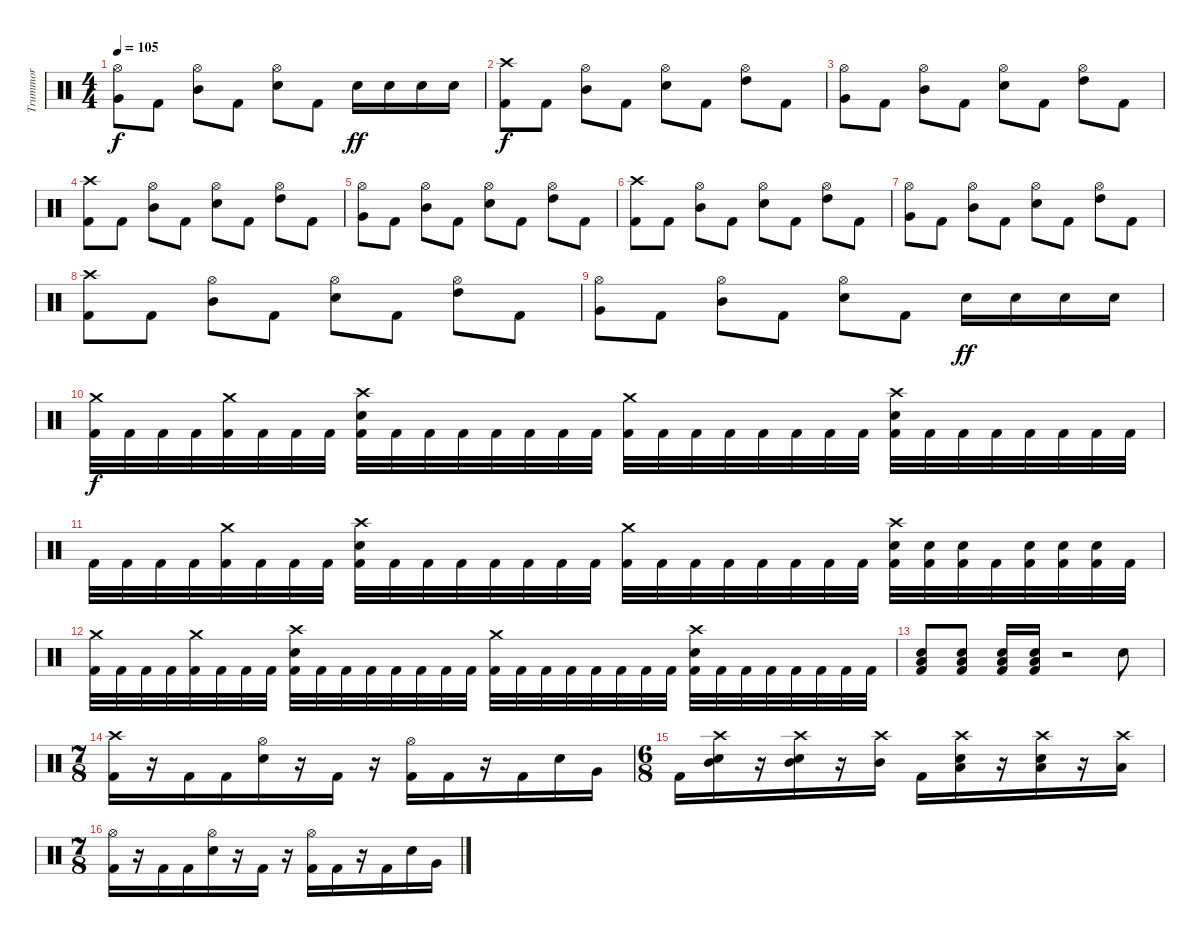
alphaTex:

\track ("Trummor" "Trummor") {instrument percussion}
\staff {score}
\articulation defaults
\ts (4 4)
\tempo 105
\clef neutral
\ks c
("Hi-Hat (open)" "Very Low Tom (hit)").8{dy f} "Kick (hit) 2".8 ("Hi-Hat (open)" "Mid Tom (hit)").8 "Kick (hit) 2".8 ("Hi-Hat (open)" "Snare (hit) 2").8 "Kick (hit) 2".8 "Snare (hit) 2".16{dy ff} "Snare (hit) 2".16 "Snare (hit) 2".16 "Snare (hit) 2".16 |
("Crash high (hit)" "Kick (hit) 2").8{dy f} "Kick (hit) 2".8 ("Hi-Hat (open)" "Mid Tom (hit)").8 "Kick (hit) 2".8 ("Hi-Hat (open)" "Snare (hit) 2").8 "Kick (hit) 2".8 ("Hi-Hat (open)" "High Tom (hit)").8 "Kick (hit) 2".8 |
("Hi-Hat (open)" "Very Low Tom (hit)").8 "Kick (hit) 2".8 ("Hi-Hat (open)" "Mid Tom (hit)").8 "Kick (hit) 2".8 ("Hi-Hat (open)" "Snare (hit) 2").8 "Kick (hit) 2".8 ("Hi-Hat (open)" "High Tom (hit)").8 "Kick (hit) 2".8 |
("Crash high (hit)" "Kick (hit) 2").8 "Kick (hit) 2".8 ("Hi-Hat (open)" "Mid Tom (hit)").8 "Kick (hit) 2".8 ("Hi-Hat (open)" "Snare (hit) 2").8 "Kick (hit) 2".8 ("Hi-Hat (open)" "High Tom (hit)").8 "Kick (hit) 2".8 |
("Hi-Hat (open)" "Very Low Tom (hit)").8 "Kick (hit) 2".8 ("Hi-Hat (open)" "Mid Tom (hit)").8 "Kick (hit) 2".8 ("Hi-Hat (open)" "Snare (hit) 2").8 "Kick (hit) 2".8 ("Hi-Hat (open)" "High Tom (hit)").8 "Kick (hit) 2".8 |
("Crash high (hit)" "Kick (hit) 2").8 "Kick (hit) 2".8 ("Hi-Hat (open)" "Mid Tom (hit)").8 "Kick (hit) 2".8 ("Hi-Hat (open)" "Snare (hit) 2").8 "Kick (hit) 2".8 ("Hi-Hat (open)" "High Tom (hit)").8 "Kick (hit) 2".8 |
("Hi-Hat (open)" "Very Low Tom (hit)").8 "Kick (hit) 2".8 ("Hi-Hat (open)" "Mid Tom (hit)").8 "Kick (hit) 2".8 ("Hi-Hat (open)" "Snare (hit) 2").8 "Kick (hit) 2".8 ("Hi-Hat (open)" "High Tom (hit)").8 "Kick (hit) 2".8 |
("Crash high (hit)" "Kick (hit) 2").8 "Kick (hit) 2".8 ("Hi-Hat (open)" "Mid Tom (hit)").8 "Kick (hit) 2".8 ("Hi-Hat (open)" "Snare (hit) 2").8 "Kick (hit) 2".8 ("Hi-Hat (open)" "High Tom (hit)").8 "Kick (hit) 2".8 |
("Hi-Hat (open)" "Very Low Tom (hit)").8 "Kick (hit) 2".8 ("Hi-Hat (open)" "Mid Tom (hit)").8 "Kick (hit) 2".8 ("Hi-Hat (open)" "Snare (hit) 2").8 "Kick (hit) 2".8 "Snare (hit) 2".16{dy ff} "Snare (hit) 2".16 "Snare (hit) 2".16 "Snare (hit) 2".16 |
("Crash medium (hit)" "Kick (hit) 2").32{dy f} "Kick (hit) 2".32 "Kick (hit) 2".32 "Kick (hit) 2".32 ("Crash medium (hit)" "Kick (hit) 2").32 "Kick (hit) 2".32 "Kick (hit) 2".32 "Kick (hit) 2".32 ("Crash high (hit)" "Snare (hit) 2" "Kick (hit) 2").32 "Kick (hit) 2".32 "Kick (hit) 2".32 "Kick (hit) 2".32 "Kick (hit) 2".32 "Kick (hit) 2".32 "Kick (hit) 2".32 "Kick (hit) 2".32 ("Crash medium (hit)" "Kick (hit) 2").32 "Kick (hit) 2".32 "Kick (hit) 2".32 "Kick (hit) 2".32 "Kick (hit) 2".32 "Kick (hit) 2".32 "Kick (hit) 2".32 "Kick (hit) 2".32 ("Crash high (hit)" "Snare (hit) 2" "Kick (hit) 2").32 "Kick (hit) 2".32 "Kick (hit) 2".32 "Kick (hit) 2".32 "Kick (hit) 2".32 "Kick (hit) 2".32 "Kick (hit) 2".32 "Kick (hit) 2".32 |
"Kick (hit) 2".32 "Kick (hit) 2".32 "Kick (hit) 2".32 "Kick (hit) 2".32 ("Crash medium (hit)" "Kick (hit) 2").32 "Kick (hit) 2".32 "Kick (hit) 2".32 "Kick (hit) 2".32 ("Crash high (hit)" "Snare (hit) 2" "Kick (hit) 2").32 "Kick (hit) 2".32 "Kick (hit) 2".32 "Kick (hit) 2".32 "Kick (hit) 2".32 "Kick (hit) 2".32 "Kick (hit) 2".32 "Kick (hit) 2".32 ("Crash medium (hit)" "Kick (hit) 2").32 "Kick (hit) 2".32 "Kick (hit) 2".32 "Kick (hit) 2".32 "Kick (hit) 2".32 "Kick (hit) 2".32 "Kick (hit) 2".32 "Kick (hit) 2".32 ("Crash high (hit)" "Snare (hit) 2" "Kick (hit) 2").32 ("Snare (hit) 2" "Kick (hit) 2").32 ("Snare (hit) 2" "Kick (hit) 2").32 "Kick (hit) 2".32 ("Snare (hit) 2" "Kick (hit) 2").32 ("Snare (hit) 2" "Kick (hit) 2").32 ("Snare (hit) 2" "Kick (hit) 2").32 "Kick (hit) 2".32 |
("Crash medium (hit)" "Kick (hit) 2").32 "Kick (hit) 2".32 "Kick (hit) 2".32 "Kick (hit) 2".32 ("Crash medium (hit)" "Kick (hit) 2").32 "Kick (hit) 2".32 "Kick (hit) 2".32 "Kick (hit) 2".32 ("Crash high (hit)" "Snare (hit) 2" "Kick (hit) 2").32 "Kick (hit) 2".32 "Kick (hit) 2".32 "Kick (hit) 2".32 "Kick (hit) 2".32 "Kick (hit) 2".32 "Kick (hit) 2".32 "Kick (hit) 2".32 ("Crash medium (hit)" "Kick (hit) 2").32 "Kick (hit) 2".32 "Kick (hit) 2".32 "Kick (hit) 2".32 "Kick (hit) 2".32 "Kick (hit) 2".32 "Kick (hit) 2".32 "Kick (hit) 2".32 ("Crash high (hit)" "Snare (hit) 2" "Kick (hit) 2").32 "Kick (hit) 2".32 "Kick (hit) 2".32 "Kick (hit) 2".32 "Kick (hit) 2".32 "Kick (hit) 2".32 "Kick (hit) 2".32 "Kick (hit) 2".32 |
("Snare (hit) 2" "Low Floor Tom (hit)" "Kick (hit) 2").8 ("Snare (hit) 2" "Low Floor Tom (hit)" "Kick (hit) 2").8 ("Snare (hit) 2" "Low Floor Tom (hit)" "Kick (hit) 2").16 ("Snare (hit) 2" "Low Floor Tom (hit)" "Kick (hit) 2").16 r.2 "Snare (hit) 2".8 |
\ts (7 8)
("Crash high (hit)" "Kick (hit) 2").16 r.16 "Kick (hit) 2".16 "Kick (hit) 2".16 ("Hi-Hat (open)" "Snare (hit) 2").16 r.16 "Kick (hit) 2".16 r.16 ("Hi-Hat (open)" "Kick (hit) 2").16 "Kick (hit) 2".16 r.16 "Kick (hit) 2".16 "Snare (hit) 2".16 "Very Low Tom (hit)".16 |
\ts (6 8)
"Kick (hit) 2".16 ("Crash high (hit)" "Mid Tom (hit)" "Snare (hit) 2").16 r.16 ("Crash high (hit)" "Mid Tom (hit)" "Snare (hit) 2").16 r.16 ("Crash high (hit)" "Mid Tom (hit)").16 "Kick (hit) 2".16 ("Crash high (hit)" "Low Tom (hit)" "Snare (hit) 2").16 r.16 ("Crash high (hit)" "Low Tom (hit)" "Snare (hit) 2").16 r.16 ("Crash high (hit)" "Low Tom (hit)").16 |
\ts (7 8)
("Hi-Hat (open)" "Kick (hit) 2").16 r.16 "Kick (hit) 2".16 "Kick (hit) 2".16 ("Hi-Hat (open)" "Snare (hit) 2").16 r.16 "Kick (hit) 2".16 r.16 ("Hi-Hat (open)" "Kick (hit) 2").16 "Kick (hit) 2".16 r.16 "Kick (hit) 2".16 "Snare (hit) 2".16 "Very Low Tom (hit)".16
